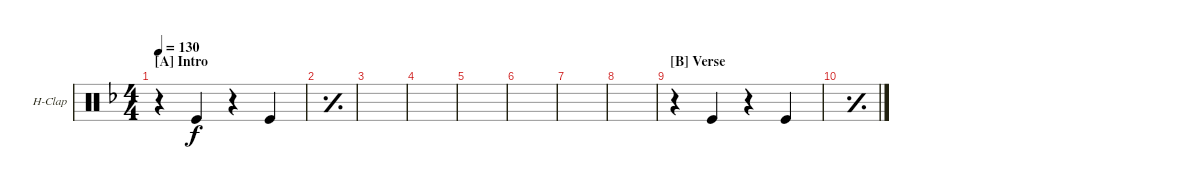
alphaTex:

\defaultSystemsLayout 4
\bracketExtendMode groupsimilarinstruments
\firstSystemTrackNameOrientation horizontal
\otherSystemsTrackNameOrientation horizontal
\track ("Hand Clap" "H-Clap") {instrument percussion}
\staff {score}
\articulation defaults
\ts (4 4)
\section ("A" "Intro")
\tempo 130
\clef neutral
\ks f
r.4{dy f} "Kick (hit)".4 r.4 "Kick (hit)".4 |
\simile simple
|
|
|
|
|
|
|
\section ("B" "Verse")
\simile none
r.4 "Kick (hit)".4 r.4 "Kick (hit)".4 |
\simile simple
